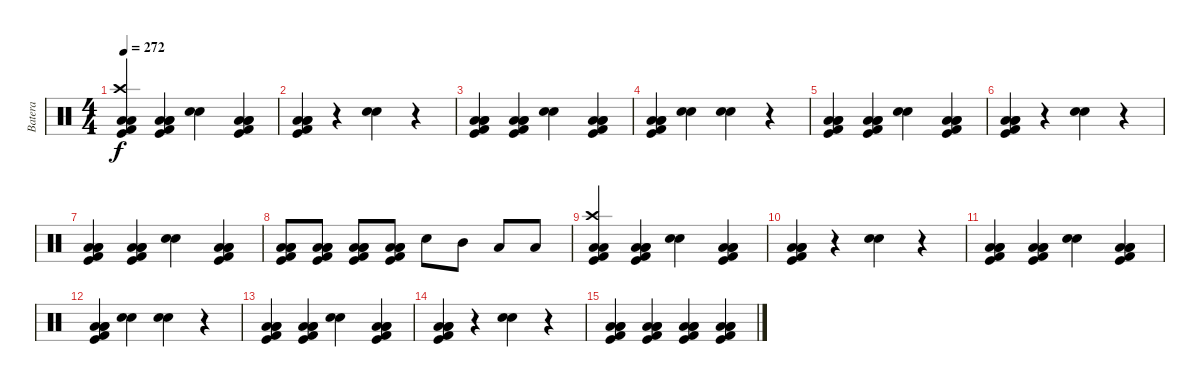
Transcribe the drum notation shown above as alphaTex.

\track ("Batera" "Batera") {instrument percussion}
\staff {score}
\articulation defaults
\ts (4 4)
\tempo 272
\clef neutral
\ks c
("Kick (hit)" "Crash high (hit)" "Low Tom (hit)" "Low Tom (hit)" "Kick (hit) 2").4{dy f} ("Kick (hit)" "Low Tom (hit)" "Low Tom (hit)" "Low Tom (hit)" "Kick (hit) 2").4 ("Electric Snare (hit)" "Electric Snare (hit)").4 ("Kick (hit)" "Low Tom (hit)" "Low Tom (hit)" "Low Tom (hit)" "Kick (hit) 2").4 |
("Kick (hit)" "Low Tom (hit)" "Low Tom (hit)" "Low Tom (hit)" "Kick (hit) 2").4 r.4 ("Electric Snare (hit)" "Electric Snare (hit)").4 r.4 |
("Kick (hit)" "Low Tom (hit)" "Low Tom (hit)" "Low Tom (hit)" "Kick (hit) 2").4 ("Kick (hit)" "Low Tom (hit)" "Low Tom (hit)" "Low Tom (hit)" "Kick (hit) 2").4 ("Electric Snare (hit)" "Electric Snare (hit)").4 ("Kick (hit)" "Low Tom (hit)" "Low Tom (hit)" "Low Tom (hit)" "Kick (hit) 2").4 |
("Kick (hit)" "Low Tom (hit)" "Low Tom (hit)" "Low Tom (hit)" "Kick (hit) 2").4 ("Electric Snare (hit)" "Electric Snare (hit)").4 ("Electric Snare (hit)" "Electric Snare (hit)").4 r.4 |
("Kick (hit)" "Low Tom (hit)" "Low Tom (hit)" "Low Tom (hit)" "Kick (hit) 2").4 ("Kick (hit)" "Low Tom (hit)" "Low Tom (hit)" "Low Tom (hit)" "Kick (hit) 2").4 ("Electric Snare (hit)" "Electric Snare (hit)").4 ("Kick (hit)" "Low Tom (hit)" "Low Tom (hit)" "Low Tom (hit)" "Kick (hit) 2").4 |
("Kick (hit)" "Low Tom (hit)" "Low Tom (hit)" "Low Tom (hit)" "Kick (hit) 2").4 r.4 ("Electric Snare (hit)" "Electric Snare (hit)").4 r.4 |
("Kick (hit)" "Low Tom (hit)" "Low Tom (hit)" "Low Tom (hit)" "Kick (hit) 2").4 ("Kick (hit)" "Low Tom (hit)" "Low Tom (hit)" "Low Tom (hit)" "Kick (hit) 2").4 ("Electric Snare (hit)" "Electric Snare (hit)").4 ("Kick (hit)" "Low Tom (hit)" "Low Tom (hit)" "Low Tom (hit)" "Kick (hit) 2").4 |
("Kick (hit)" "Low Tom (hit)" "Low Tom (hit)" "Low Tom (hit)" "Kick (hit) 2").8 ("Kick (hit)" "Low Tom (hit)" "Low Tom (hit)" "Low Tom (hit)" "Kick (hit) 2").8 ("Kick (hit)" "Low Tom (hit)" "Low Tom (hit)" "Low Tom (hit)" "Kick (hit) 2").8 ("Kick (hit)" "Low Tom (hit)" "Low Tom (hit)" "Low Tom (hit)" "Kick (hit) 2").8 "Electric Snare (hit)".8 "Mid Tom (hit)".8 "Low Floor Tom (hit)".8 "Low Floor Tom (hit)".8 |
("Kick (hit)" "Crash high (hit)" "Low Tom (hit)" "Low Tom (hit)" "Kick (hit) 2").4 ("Kick (hit)" "Low Tom (hit)" "Low Tom (hit)" "Low Tom (hit)" "Kick (hit) 2").4 ("Electric Snare (hit)" "Electric Snare (hit)").4 ("Kick (hit)" "Low Tom (hit)" "Low Tom (hit)" "Low Tom (hit)" "Kick (hit) 2").4 |
("Kick (hit)" "Low Tom (hit)" "Low Tom (hit)" "Low Tom (hit)" "Kick (hit) 2").4 r.4 ("Electric Snare (hit)" "Electric Snare (hit)").4 r.4 |
("Kick (hit)" "Low Tom (hit)" "Low Tom (hit)" "Low Tom (hit)" "Kick (hit) 2").4 ("Kick (hit)" "Low Tom (hit)" "Low Tom (hit)" "Low Tom (hit)" "Kick (hit) 2").4 ("Electric Snare (hit)" "Electric Snare (hit)").4 ("Kick (hit)" "Low Tom (hit)" "Low Tom (hit)" "Low Tom (hit)" "Kick (hit) 2").4 |
("Kick (hit)" "Low Tom (hit)" "Low Tom (hit)" "Low Tom (hit)" "Kick (hit) 2").4 ("Electric Snare (hit)" "Electric Snare (hit)").4 ("Electric Snare (hit)" "Electric Snare (hit)").4 r.4 |
("Kick (hit)" "Low Tom (hit)" "Low Tom (hit)" "Low Tom (hit)" "Kick (hit) 2").4 ("Kick (hit)" "Low Tom (hit)" "Low Tom (hit)" "Low Tom (hit)" "Kick (hit) 2").4 ("Electric Snare (hit)" "Electric Snare (hit)").4 ("Kick (hit)" "Low Tom (hit)" "Low Tom (hit)" "Low Tom (hit)" "Kick (hit) 2").4 |
("Kick (hit)" "Low Tom (hit)" "Low Tom (hit)" "Low Tom (hit)" "Kick (hit) 2").4 r.4 ("Electric Snare (hit)" "Electric Snare (hit)").4 r.4 |
("Kick (hit)" "Low Tom (hit)" "Low Tom (hit)" "Low Tom (hit)" "Kick (hit) 2").4 ("Kick (hit)" "Low Tom (hit)" "Low Tom (hit)" "Low Tom (hit)" "Kick (hit) 2").4 ("Kick (hit)" "Low Tom (hit)" "Low Tom (hit)" "Low Tom (hit)" "Kick (hit) 2").4 ("Kick (hit)" "Low Tom (hit)" "Low Tom (hit)" "Low Tom (hit)" "Kick (hit) 2").4
